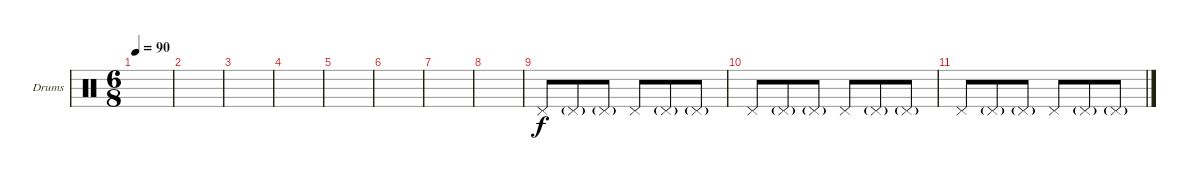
\defaultSystemsLayout 4
\bracketExtendMode groupsimilarinstruments
\firstSystemTrackNameOrientation horizontal
\otherSystemsTrackNameOrientation horizontal
\track ("Drumkit" "Drums") {instrument percussion}
\staff {score}
\articulation defaults
\ts (6 8)
\tempo 90
\clef neutral
\scale
0.333333
\ks c
|
\scale
0.333333 |
\scale
0.333333 |
\scale
0.333333 |
\scale
0.333333 |
\scale
0.333333 |
\scale
0.333333 |
\scale
0.333333 |
\scale
0.333333 "Pedal Hi-Hat (hit)".8 "Pedal Hi-Hat (hit)"{g}.8 "Pedal Hi-Hat (hit)"{g}.8 "Pedal Hi-Hat (hit)".8 "Pedal Hi-Hat (hit)"{g}.8 "Pedal Hi-Hat (hit)"{g}.8 |
\scale
0.333333 "Pedal Hi-Hat (hit)".8 "Pedal Hi-Hat (hit)"{g}.8 "Pedal Hi-Hat (hit)"{g}.8 "Pedal Hi-Hat (hit)".8 "Pedal Hi-Hat (hit)"{g}.8 "Pedal Hi-Hat (hit)"{g}.8 |
\scale
0.333333 "Pedal Hi-Hat (hit)".8 "Pedal Hi-Hat (hit)"{g}.8 "Pedal Hi-Hat (hit)"{g}.8 "Pedal Hi-Hat (hit)".8 "Pedal Hi-Hat (hit)"{g}.8 "Pedal Hi-Hat (hit)"{g}.8 |
\scale
0.333333 |
\scale
0.333333
